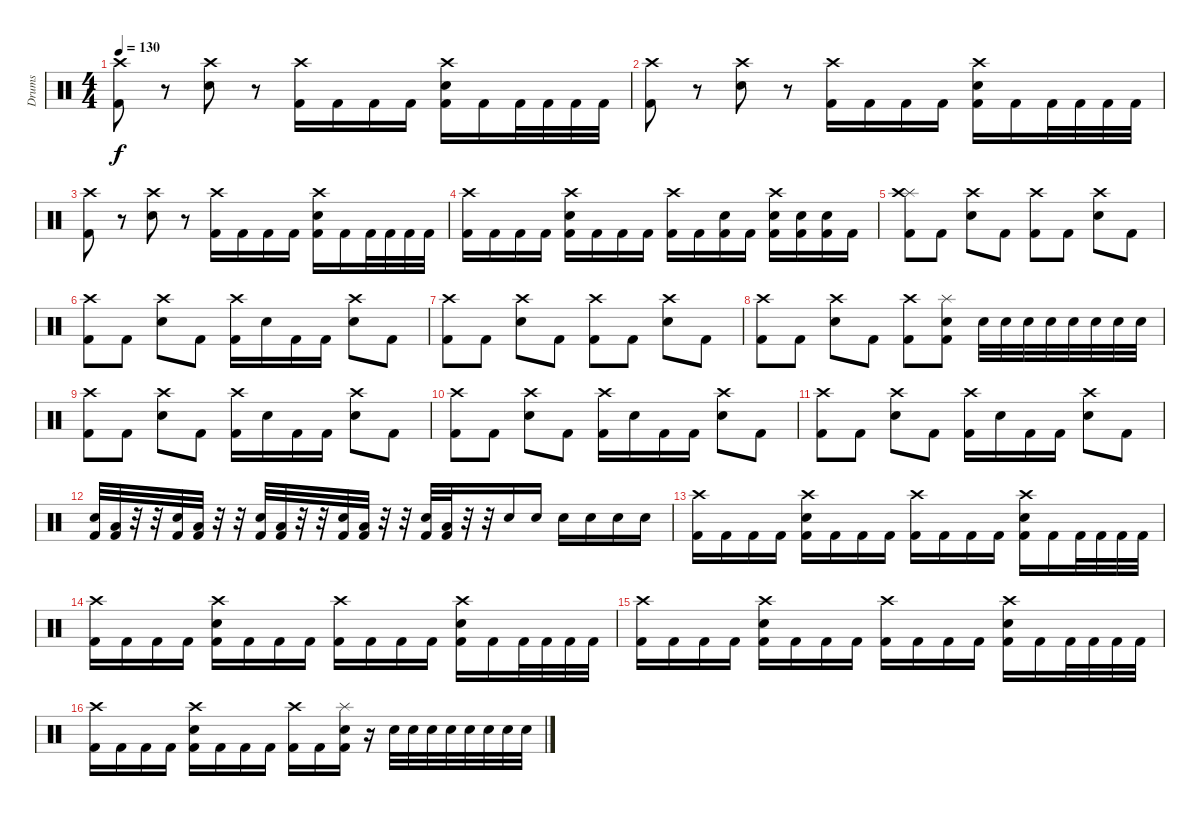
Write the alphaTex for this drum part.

\track ("Drums" "Drums") {instrument percussion}
\staff {score}
\articulation defaults
\ts (4 4)
\tempo 130
\clef neutral
\ks c
("Crash high (hit)" "Kick (hit) 2").8{dy f} r.8 ("Crash high (hit)" "Snare (hit) 2").8 r.8 ("Crash high (hit)" "Kick (hit) 2").16 "Kick (hit) 2".16 "Kick (hit) 2".16 "Kick (hit) 2".16 ("Crash high (hit)" "Snare (hit) 2" "Kick (hit) 2").16 "Kick (hit) 2".16 "Kick (hit) 2".32 "Kick (hit) 2".32 "Kick (hit) 2".32 "Kick (hit) 2".32 |
("Crash high (hit)" "Kick (hit) 2").8 r.8 ("Crash high (hit)" "Snare (hit) 2").8 r.8 ("Crash high (hit)" "Kick (hit) 2").16 "Kick (hit) 2".16 "Kick (hit) 2".16 "Kick (hit) 2".16 ("Crash high (hit)" "Snare (hit) 2" "Kick (hit) 2").16 "Kick (hit) 2".16 "Kick (hit) 2".32 "Kick (hit) 2".32 "Kick (hit) 2".32 "Kick (hit) 2".32 |
("Crash high (hit)" "Kick (hit) 2").8 r.8 ("Crash high (hit)" "Snare (hit) 2").8 r.8 ("Crash high (hit)" "Kick (hit) 2").16 "Kick (hit) 2".16 "Kick (hit) 2".16 "Kick (hit) 2".16 ("Crash high (hit)" "Snare (hit) 2" "Kick (hit) 2").16 "Kick (hit) 2".16 "Kick (hit) 2".32 "Kick (hit) 2".32 "Kick (hit) 2".32 "Kick (hit) 2".32 |
("Crash high (hit)" "Kick (hit) 2").16 "Kick (hit) 2".16 "Kick (hit) 2".16 "Kick (hit) 2".16 ("Crash high (hit)" "Snare (hit) 2" "Kick (hit) 2").16 "Kick (hit) 2".16 "Kick (hit) 2".16 "Kick (hit) 2".16 ("Crash high (hit)" "Kick (hit) 2").16 "Kick (hit) 2".16 ("Snare (hit) 2" "Kick (hit) 2").16 "Kick (hit) 2".16 ("Crash high (hit)" "Snare (hit) 2" "Kick (hit) 2").16 ("Snare (hit) 2" "Kick (hit) 2").16 ("Snare (hit) 2" "Kick (hit) 2").16 "Kick (hit) 2".16 |
("Splash (hit)" "Crash high (hit)" "Kick (hit) 2").8 "Kick (hit) 2".8 ("Crash high (hit)" "Snare (hit) 2").8 "Kick (hit) 2".8 ("Crash high (hit)" "Kick (hit) 2").8 "Kick (hit) 2".8 ("Crash high (hit)" "Snare (hit) 2").8 "Kick (hit) 2".8 |
("Crash high (hit)" "Kick (hit) 2").8 "Kick (hit) 2".8 ("Crash high (hit)" "Snare (hit) 2").8 "Kick (hit) 2".8 ("Crash high (hit)" "Kick (hit) 2").16 "Snare (hit) 2".16 "Kick (hit) 2".16 "Kick (hit) 2".16 ("Crash high (hit)" "Snare (hit) 2").8 "Kick (hit) 2".8 |
("Crash high (hit)" "Kick (hit) 2").8 "Kick (hit) 2".8 ("Crash high (hit)" "Snare (hit) 2").8 "Kick (hit) 2".8 ("Crash high (hit)" "Kick (hit) 2").8 "Kick (hit) 2".8 ("Crash high (hit)" "Snare (hit) 2").8 "Kick (hit) 2".8 |
("Crash high (hit)" "Kick (hit) 2").8 "Kick (hit) 2".8 ("Crash high (hit)" "Snare (hit) 2").8 "Kick (hit) 2".8 ("Crash high (hit)" "Kick (hit) 2").8 ("Splash (hit)" "Snare (hit) 2" "Kick (hit) 2").8 "Snare (hit) 2".32 "Snare (hit) 2".32 "Snare (hit) 2".32 "Snare (hit) 2".32 "Snare (hit) 2".32 "Snare (hit) 2".32 "Snare (hit) 2".32 "Snare (hit) 2".32 |
("Crash high (hit)" "Kick (hit) 2").8 "Kick (hit) 2".8 ("Crash high (hit)" "Snare (hit) 2").8 "Kick (hit) 2".8 ("Crash high (hit)" "Kick (hit) 2").16 "Snare (hit) 2".16 "Kick (hit) 2".16 "Kick (hit) 2".16 ("Crash high (hit)" "Snare (hit) 2").8 "Kick (hit) 2".8 |
("Crash high (hit)" "Kick (hit) 2").8 "Kick (hit) 2".8 ("Crash high (hit)" "Snare (hit) 2").8 "Kick (hit) 2".8 ("Crash high (hit)" "Kick (hit) 2").16 "Snare (hit) 2".16 "Kick (hit) 2".16 "Kick (hit) 2".16 ("Crash high (hit)" "Snare (hit) 2").8 "Kick (hit) 2".8 |
("Crash high (hit)" "Kick (hit) 2").8 "Kick (hit) 2".8 ("Crash high (hit)" "Snare (hit) 2").8 "Kick (hit) 2".8 ("Crash high (hit)" "Kick (hit) 2").16 "Snare (hit) 2".16 "Kick (hit) 2".16 "Kick (hit) 2".16 ("Crash high (hit)" "Snare (hit) 2").8 "Kick (hit) 2".8 |
("Snare (hit) 2" "Kick (hit) 2").32 ("Low Tom (hit)" "Kick (hit) 2").32 r.32 r.32 ("Snare (hit) 2" "Kick (hit) 2").32 ("Low Tom (hit)" "Kick (hit) 2").32 r.32 r.32 ("Snare (hit) 2" "Kick (hit) 2").32 ("Low Tom (hit)" "Kick (hit) 2").32 r.32 r.32 ("Snare (hit) 2" "Kick (hit) 2").32 ("Low Tom (hit)" "Kick (hit) 2").32 r.32 r.32 ("Snare (hit) 2" "Kick (hit) 2").32 ("Low Tom (hit)" "Kick (hit) 2").32 r.32 r.32 "Snare (hit) 2".16 "Snare (hit) 2".16 "Snare (hit) 2".16 "Snare (hit) 2".16 "Snare (hit) 2".16 "Snare (hit) 2".16 |
("Crash high (hit)" "Kick (hit) 2").16 "Kick (hit) 2".16 "Kick (hit) 2".16 "Kick (hit) 2".16 ("Crash high (hit)" "Snare (hit) 2" "Kick (hit) 2").16 "Kick (hit) 2".16 "Kick (hit) 2".16 "Kick (hit) 2".16 ("Crash high (hit)" "Kick (hit) 2").16 "Kick (hit) 2".16 "Kick (hit) 2".16 "Kick (hit) 2".16 ("Crash high (hit)" "Snare (hit) 2" "Kick (hit) 2").16 "Kick (hit) 2".16 "Kick (hit) 2".32 "Kick (hit) 2".32 "Kick (hit) 2".32 "Kick (hit) 2".32 |
("Crash high (hit)" "Kick (hit) 2").16 "Kick (hit) 2".16 "Kick (hit) 2".16 "Kick (hit) 2".16 ("Crash high (hit)" "Snare (hit) 2" "Kick (hit) 2").16 "Kick (hit) 2".16 "Kick (hit) 2".16 "Kick (hit) 2".16 ("Crash high (hit)" "Kick (hit) 2").16 "Kick (hit) 2".16 "Kick (hit) 2".16 "Kick (hit) 2".16 ("Crash high (hit)" "Snare (hit) 2" "Kick (hit) 2").16 "Kick (hit) 2".16 "Kick (hit) 2".32 "Kick (hit) 2".32 "Kick (hit) 2".32 "Kick (hit) 2".32 |
("Crash high (hit)" "Kick (hit) 2").16 "Kick (hit) 2".16 "Kick (hit) 2".16 "Kick (hit) 2".16 ("Crash high (hit)" "Snare (hit) 2" "Kick (hit) 2").16 "Kick (hit) 2".16 "Kick (hit) 2".16 "Kick (hit) 2".16 ("Crash high (hit)" "Kick (hit) 2").16 "Kick (hit) 2".16 "Kick (hit) 2".16 "Kick (hit) 2".16 ("Crash high (hit)" "Snare (hit) 2" "Kick (hit) 2").16 "Kick (hit) 2".16 "Kick (hit) 2".32 "Kick (hit) 2".32 "Kick (hit) 2".32 "Kick (hit) 2".32 |
("Crash high (hit)" "Kick (hit) 2").16 "Kick (hit) 2".16 "Kick (hit) 2".16 "Kick (hit) 2".16 ("Crash high (hit)" "Snare (hit) 2" "Kick (hit) 2").16 "Kick (hit) 2".16 "Kick (hit) 2".16 "Kick (hit) 2".16 ("Crash high (hit)" "Kick (hit) 2").16 "Kick (hit) 2".16 ("Splash (hit)" "Snare (hit) 2" "Kick (hit) 2").16 r.16 "Snare (hit) 2".32 "Snare (hit) 2".32 "Snare (hit) 2".32 "Snare (hit) 2".32 "Snare (hit) 2".32 "Snare (hit) 2".32 "Snare (hit) 2".32 "Snare (hit) 2".32
